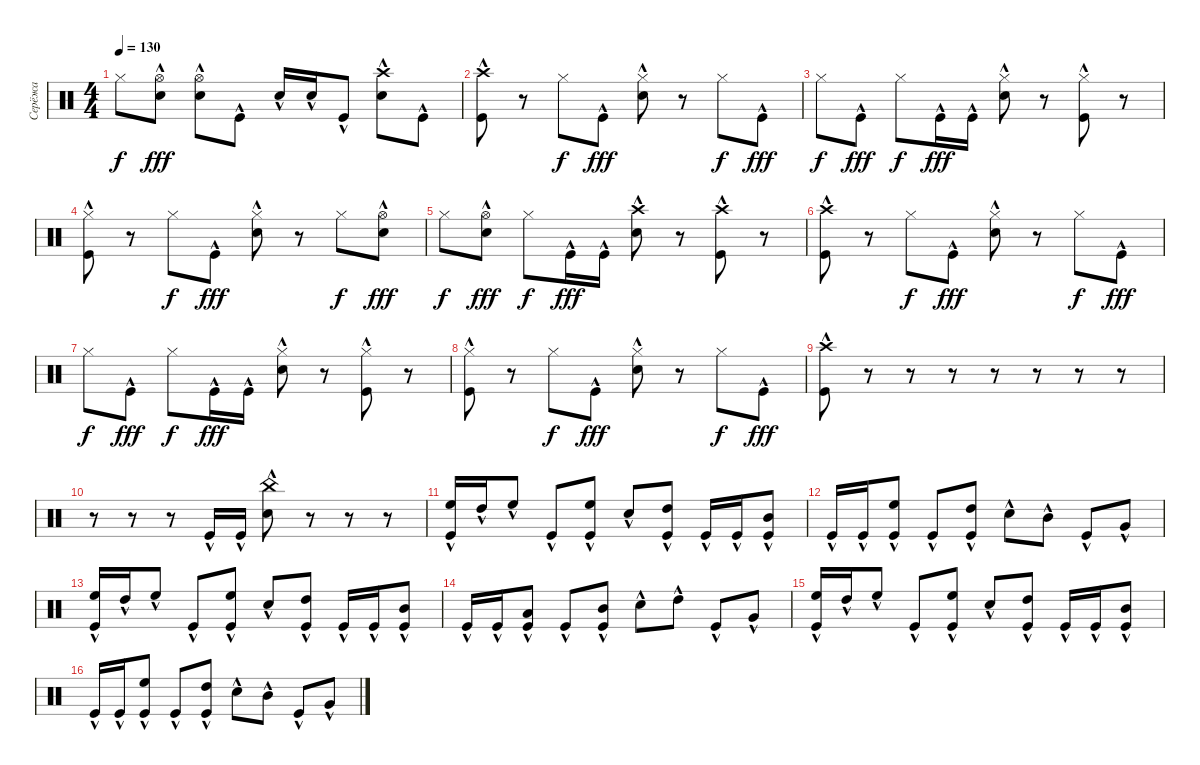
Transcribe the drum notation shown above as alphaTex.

\track ("Серёжа" "Серёжа") {instrument percussion}
\staff {score}
\articulation defaults
\ts (4 4)
\tempo 130
\clef neutral
\ks c "Hi-Hat (closed)".8{dy f}
("Hi-Hat (open)" "Snare (hit) 2"{hac}).8{dy fff} ("Hi-Hat (open)" "Snare (hit) 2"{hac}).8 "Kick (hit)"{hac}.8 "Snare (hit) 2"{hac}.16 "Snare (hit) 2"{hac}.16 "Kick (hit)"{hac}.8 ("Crash high (hit)" "Snare (hit) 2"{hac}).8 "Kick (hit)"{hac}.8 |
("Crash high (hit)"{hac} "Kick (hit)"{hac}).8 r.8 "Hi-Hat (closed)".8{dy f} "Kick (hit)"{hac}.8{dy fff} ("Hi-Hat (closed)" "Snare (hit) 2"{hac}).8 r.8 "Hi-Hat (closed)".8{dy f} "Kick (hit)"{hac}.8{dy fff} |
"Hi-Hat (closed)".8{dy f} "Kick (hit)"{hac}.8{dy fff} "Hi-Hat (closed)".8{dy f} "Kick (hit)"{hac}.16{dy fff} "Kick (hit)"{hac}.16 ("Hi-Hat (closed)" "Snare (hit) 2"{hac}).8 r.8 ("Hi-Hat (closed)" "Kick (hit)"{hac}).8 r.8 |
("Hi-Hat (closed)" "Kick (hit)"{hac}).8 r.8 "Hi-Hat (closed)".8{dy f} "Kick (hit)"{hac}.8{dy fff} ("Hi-Hat (closed)" "Snare (hit) 2"{hac}).8 r.8 "Hi-Hat (closed)".8{dy f} ("Hi-Hat (open)" "Snare (hit) 2"{hac}).8{dy fff} |
"Hi-Hat (closed)".8{dy f} ("Hi-Hat (open)" "Snare (hit) 2"{hac}).8{dy fff} "Hi-Hat (closed)".8{dy f} "Kick (hit)"{hac}.16{dy fff} "Kick (hit)"{hac}.16 ("Crash high (hit)" "Snare (hit) 2"{hac}).8 r.8 ("Crash high (hit)" "Kick (hit)"{hac}).8 r.8 |
("Crash high (hit)"{hac} "Kick (hit)"{hac}).8 r.8 "Hi-Hat (closed)".8{dy f} "Kick (hit)"{hac}.8{dy fff} ("Hi-Hat (closed)" "Snare (hit) 2"{hac}).8 r.8 "Hi-Hat (closed)".8{dy f} "Kick (hit)"{hac}.8{dy fff} |
"Hi-Hat (closed)".8{dy f} "Kick (hit)"{hac}.8{dy fff} "Hi-Hat (closed)".8{dy f} "Kick (hit)"{hac}.16{dy fff} "Kick (hit)"{hac}.16 ("Hi-Hat (closed)" "Snare (hit) 2"{hac}).8 r.8 ("Hi-Hat (closed)" "Kick (hit)"{hac}).8 r.8 |
("Hi-Hat (closed)" "Kick (hit)"{hac}).8 r.8 "Hi-Hat (closed)".8{dy f} "Kick (hit)"{hac}.8{dy fff} ("Hi-Hat (closed)" "Snare (hit) 2"{hac}).8 r.8 "Hi-Hat (closed)".8{dy f} "Kick (hit)"{hac}.8{dy fff} |
("Crash high (hit)"{hac} "Kick (hit)"{hac}).8 r.8 r.8 r.8 r.8 r.8 r.8 r.8 |
r.8 r.8 r.8 "Kick (hit)"{hac}.16 "Kick (hit)"{hac}.16 ("China (hit)"{hac} "Snare (hit) 2"{hac}).8 r.8 r.8 r.8 |
("High Floor Tom (hit)"{hac} "Kick (hit)"{hac}).16 "High Tom (hit)"{hac}.16 "High Floor Tom (hit)"{hac}.8 "Kick (hit)"{hac}.8 ("High Floor Tom (hit)"{hac} "Kick (hit)"{hac}).8 "Snare (hit) 2"{hac}.8 ("High Tom (hit)"{hac} "Kick (hit)"{hac}).8 "Kick (hit)"{hac}.16 "Kick (hit)"{hac}.16 ("Mid Tom (hit)"{hac} "Kick (hit)"{hac}).8 |
"Kick (hit)"{hac}.16 "Kick (hit)"{hac}.16 ("High Floor Tom (hit)"{hac} "Kick (hit)"{hac}).8 "Kick (hit)"{hac}.8 ("High Tom (hit)"{hac} "Kick (hit)"{hac}).8 "Snare (hit) 2"{hac}.8 "Mid Tom (hit)"{hac}.8 "Kick (hit)"{hac}.8 "Very Low Tom (hit)"{hac}.8 |
("High Floor Tom (hit)"{hac} "Kick (hit)"{hac}).16 "High Tom (hit)"{hac}.16 "High Floor Tom (hit)"{hac}.8 "Kick (hit)"{hac}.8 ("High Floor Tom (hit)"{hac} "Kick (hit)"{hac}).8 "Snare (hit) 2"{hac}.8 ("High Tom (hit)"{hac} "Kick (hit)"{hac}).8 "Kick (hit)"{hac}.16 "Kick (hit)"{hac}.16 ("Mid Tom (hit)"{hac} "Kick (hit)"{hac}).8 |
"Kick (hit)"{hac}.16 "Kick (hit)"{hac}.16 ("Low Tom (hit)"{hac} "Kick (hit)"{hac}).8 "Kick (hit)"{hac}.8 ("Mid Tom (hit)"{hac} "Kick (hit)"{hac}).8 "Snare (hit) 2"{hac}.8 "High Tom (hit)"{hac}.8 "Kick (hit)"{hac}.8 "Very Low Tom (hit)"{hac}.8 |
("High Floor Tom (hit)"{hac} "Kick (hit)"{hac}).16 "High Tom (hit)"{hac}.16 "High Floor Tom (hit)"{hac}.8 "Kick (hit)"{hac}.8 ("High Floor Tom (hit)"{hac} "Kick (hit)"{hac}).8 "Snare (hit) 2"{hac}.8 ("High Tom (hit)"{hac} "Kick (hit)"{hac}).8 "Kick (hit)"{hac}.16 "Kick (hit)"{hac}.16 ("Mid Tom (hit)"{hac} "Kick (hit)"{hac}).8 |
"Kick (hit)"{hac}.16 "Kick (hit)"{hac}.16 ("High Floor Tom (hit)"{hac} "Kick (hit)"{hac}).8 "Kick (hit)"{hac}.8 ("High Tom (hit)"{hac} "Kick (hit)"{hac}).8 "Snare (hit) 2"{hac}.8 "Mid Tom (hit)"{hac}.8 "Kick (hit)"{hac}.8 "Very Low Tom (hit)"{hac}.8
